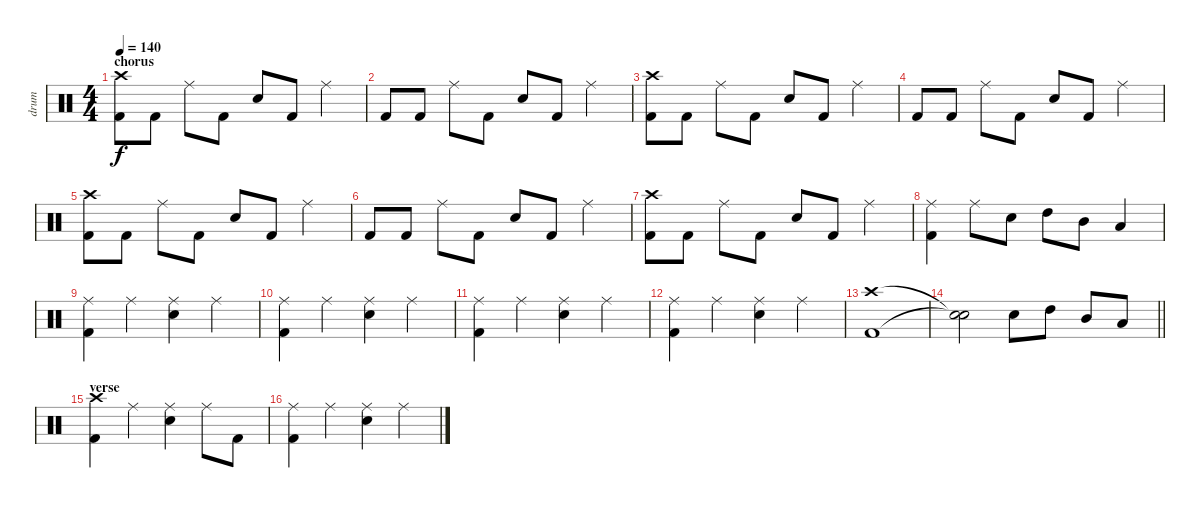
\track ("drum" "drum") {instrument percussion}
\staff {score}
\articulation defaults
\ts (4 4)
\section ("" "chorus")
\tempo 140
\clef neutral
\ks c
("Crash high (hit)" "Kick (hit) 2").8{dy f} "Kick (hit) 2".8 "Ride (middle)".8 "Kick (hit) 2".8 "Electric Snare (hit)".8 "Kick (hit) 2".8 "Ride (middle)".4 |
"Kick (hit) 2".8 "Kick (hit) 2".8 "Ride (middle)".8 "Kick (hit) 2".8 "Electric Snare (hit)".8 "Kick (hit) 2".8 "Ride (middle)".4 |
("Crash high (hit)" "Kick (hit) 2").8 "Kick (hit) 2".8 "Ride (middle)".8 "Kick (hit) 2".8 "Electric Snare (hit)".8 "Kick (hit) 2".8 "Ride (middle)".4 |
"Kick (hit) 2".8 "Kick (hit) 2".8 "Ride (middle)".8 "Kick (hit) 2".8 "Electric Snare (hit)".8 "Kick (hit) 2".8 "Ride (middle)".4 |
("Crash high (hit)" "Kick (hit) 2").8 "Kick (hit) 2".8 "Ride (middle)".8 "Kick (hit) 2".8 "Electric Snare (hit)".8 "Kick (hit) 2".8 "Ride (middle)".4 |
"Kick (hit) 2".8 "Kick (hit) 2".8 "Ride (middle)".8 "Kick (hit) 2".8 "Electric Snare (hit)".8 "Kick (hit) 2".8 "Ride (middle)".4 |
("Crash high (hit)" "Kick (hit) 2").8 "Kick (hit) 2".8 "Ride (middle)".8 "Kick (hit) 2".8 "Electric Snare (hit)".8 "Kick (hit) 2".8 "Ride (middle)".4 |
("Ride (middle)" "Kick (hit) 2").4 "Ride (middle)".8 "Electric Snare (hit)".8 "High Tom (hit)".8 "Mid Tom (hit)".8 "Low Tom (hit)".4 |
("Ride (middle)" "Kick (hit) 2").4 "Ride (middle)".4 ("Ride (middle)" "Electric Snare (hit)").4 "Ride (middle)".4 |
("Ride (middle)" "Kick (hit) 2").4 "Ride (middle)".4 ("Ride (middle)" "Electric Snare (hit)").4 "Ride (middle)".4 |
("Ride (middle)" "Kick (hit) 2").4 "Ride (middle)".4 ("Ride (middle)" "Electric Snare (hit)").4 "Ride (middle)".4 |
("Ride (middle)" "Kick (hit) 2").4 "Ride (middle)".4 ("Ride (middle)" "Electric Snare (hit)").4 "Ride (middle)".4 |
("Crash high (hit)" "Kick (hit) 2").1 |
\barLineRight lightlight
("Snare (hit)"{t} "Snare (hit)"{t}).2 "Electric Snare (hit)".8 "High Tom (hit)".8 "Mid Tom (hit)".8 "Low Tom (hit)".8 |
\section ("" "verse")
("Crash high (hit)" "Kick (hit) 2").4 "Ride (middle)".4 ("Ride (middle)" "Electric Snare (hit)").4 "Ride (middle)".8 "Kick (hit) 2".8 |
("Ride (middle)" "Kick (hit) 2").4 "Ride (middle)".4 ("Ride (middle)" "Electric Snare (hit)").4 "Ride (middle)".4
